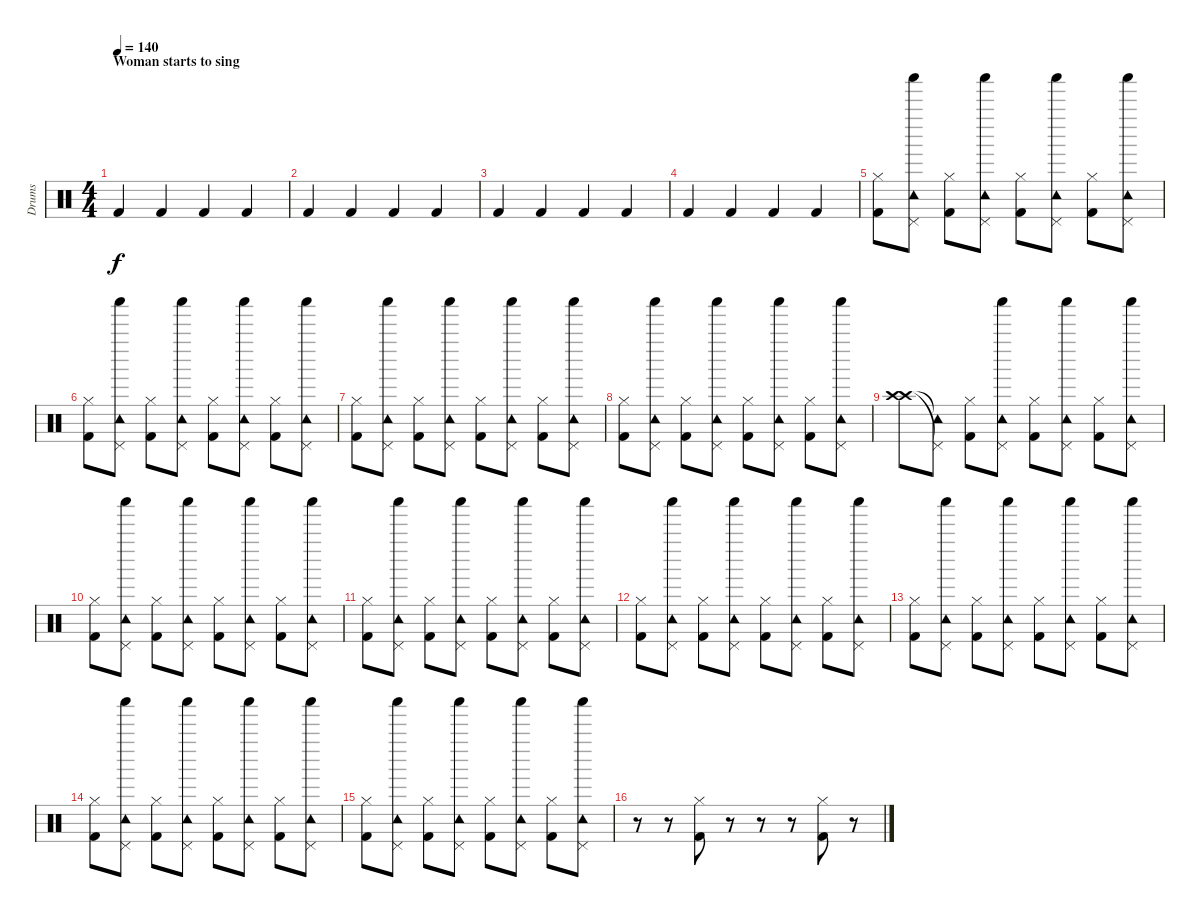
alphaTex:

\track ("Drums" "Drums") {instrument percussion}
\staff {score}
\articulation defaults
\ts (4 4)
\section ("" "Woman starts to sing")
\tempo 140
\clef neutral
\ks c "Kick (hit) 2".4{dy f} "Kick (hit) 2".4 "Kick (hit) 2".4 "Kick (hit) 2".4
|
"Kick (hit) 2".4 "Kick (hit) 2".4 "Kick (hit) 2".4 "Kick (hit) 2".4 |
"Kick (hit) 2".4 "Kick (hit) 2".4 "Kick (hit) 2".4 "Kick (hit) 2".4 |
"Kick (hit) 2".4 "Kick (hit) 2".4 "Kick (hit) 2".4 "Kick (hit) 2".4 |
("Kick (hit) 2" "Hi-Hat (closed)").8 ("Pedal Hi-Hat (hit)" "Tambourine (hit)" "Shaker (hit)").8 ("Kick (hit) 2" "Hi-Hat (closed)").8 ("Pedal Hi-Hat (hit)" "Tambourine (hit)" "Shaker (hit)").8 ("Kick (hit) 2" "Hi-Hat (closed)").8 ("Pedal Hi-Hat (hit)" "Tambourine (hit)" "Shaker (hit)").8 ("Kick (hit) 2" "Hi-Hat (closed)").8 ("Pedal Hi-Hat (hit)" "Tambourine (hit)" "Shaker (hit)").8 |
("Kick (hit) 2" "Hi-Hat (closed)").8 ("Pedal Hi-Hat (hit)" "Tambourine (hit)" "Shaker (hit)").8 ("Kick (hit) 2" "Hi-Hat (closed)").8 ("Pedal Hi-Hat (hit)" "Tambourine (hit)" "Shaker (hit)").8 ("Kick (hit) 2" "Hi-Hat (closed)").8 ("Pedal Hi-Hat (hit)" "Tambourine (hit)" "Shaker (hit)").8 ("Kick (hit) 2" "Hi-Hat (closed)").8 ("Pedal Hi-Hat (hit)" "Tambourine (hit)" "Shaker (hit)").8 |
("Kick (hit) 2" "Hi-Hat (closed)").8 ("Pedal Hi-Hat (hit)" "Tambourine (hit)" "Shaker (hit)").8 ("Kick (hit) 2" "Hi-Hat (closed)").8 ("Pedal Hi-Hat (hit)" "Tambourine (hit)" "Shaker (hit)").8 ("Kick (hit) 2" "Hi-Hat (closed)").8 ("Pedal Hi-Hat (hit)" "Tambourine (hit)" "Shaker (hit)").8 ("Kick (hit) 2" "Hi-Hat (closed)").8 ("Pedal Hi-Hat (hit)" "Tambourine (hit)" "Shaker (hit)").8 |
("Kick (hit) 2" "Hi-Hat (closed)").8 ("Pedal Hi-Hat (hit)" "Tambourine (hit)" "Shaker (hit)").8 ("Kick (hit) 2" "Hi-Hat (closed)").8 ("Pedal Hi-Hat (hit)" "Tambourine (hit)" "Shaker (hit)").8 ("Kick (hit) 2" "Hi-Hat (closed)").8 ("Pedal Hi-Hat (hit)" "Tambourine (hit)" "Shaker (hit)").8 ("Kick (hit) 2" "Hi-Hat (closed)").8 ("Pedal Hi-Hat (hit)" "Tambourine (hit)" "Shaker (hit)").8 |
("Crash high (hit)" "Crash high (hit)").8 ("Pedal Hi-Hat (hit)"{t} "Tambourine (hit)"{t}).8 ("Hi-Hat (closed)" "Kick (hit) 2").8 ("Pedal Hi-Hat (hit)" "Tambourine (hit)" "Shaker (hit)").8 ("Kick (hit) 2" "Hi-Hat (closed)").8 ("Pedal Hi-Hat (hit)" "Tambourine (hit)" "Shaker (hit)").8 ("Kick (hit) 2" "Hi-Hat (closed)").8 ("Pedal Hi-Hat (hit)" "Tambourine (hit)" "Shaker (hit)").8 |
("Kick (hit) 2" "Hi-Hat (closed)").8 ("Pedal Hi-Hat (hit)" "Tambourine (hit)" "Shaker (hit)").8 ("Kick (hit) 2" "Hi-Hat (closed)").8 ("Pedal Hi-Hat (hit)" "Tambourine (hit)" "Shaker (hit)").8 ("Kick (hit) 2" "Hi-Hat (closed)").8 ("Pedal Hi-Hat (hit)" "Tambourine (hit)" "Shaker (hit)").8 ("Kick (hit) 2" "Hi-Hat (closed)").8 ("Pedal Hi-Hat (hit)" "Tambourine (hit)" "Shaker (hit)").8 |
("Kick (hit) 2" "Hi-Hat (closed)").8 ("Pedal Hi-Hat (hit)" "Tambourine (hit)" "Shaker (hit)").8 ("Kick (hit) 2" "Hi-Hat (closed)").8 ("Pedal Hi-Hat (hit)" "Tambourine (hit)" "Shaker (hit)").8 ("Kick (hit) 2" "Hi-Hat (closed)").8 ("Pedal Hi-Hat (hit)" "Tambourine (hit)" "Shaker (hit)").8 ("Kick (hit) 2" "Hi-Hat (closed)").8 ("Pedal Hi-Hat (hit)" "Tambourine (hit)" "Shaker (hit)").8 |
("Kick (hit) 2" "Hi-Hat (closed)").8 ("Pedal Hi-Hat (hit)" "Tambourine (hit)" "Shaker (hit)").8 ("Kick (hit) 2" "Hi-Hat (closed)").8 ("Pedal Hi-Hat (hit)" "Tambourine (hit)" "Shaker (hit)").8 ("Kick (hit) 2" "Hi-Hat (closed)").8 ("Pedal Hi-Hat (hit)" "Tambourine (hit)" "Shaker (hit)").8 ("Kick (hit) 2" "Hi-Hat (closed)").8 ("Pedal Hi-Hat (hit)" "Tambourine (hit)" "Shaker (hit)").8 |
("Kick (hit) 2" "Hi-Hat (closed)").8 ("Pedal Hi-Hat (hit)" "Tambourine (hit)" "Shaker (hit)").8 ("Kick (hit) 2" "Hi-Hat (closed)").8 ("Pedal Hi-Hat (hit)" "Tambourine (hit)" "Shaker (hit)").8 ("Kick (hit) 2" "Hi-Hat (closed)").8 ("Pedal Hi-Hat (hit)" "Tambourine (hit)" "Shaker (hit)").8 ("Kick (hit) 2" "Hi-Hat (closed)").8 ("Pedal Hi-Hat (hit)" "Tambourine (hit)" "Shaker (hit)").8 |
("Kick (hit) 2" "Hi-Hat (closed)").8 ("Pedal Hi-Hat (hit)" "Tambourine (hit)" "Shaker (hit)").8 ("Kick (hit) 2" "Hi-Hat (closed)").8 ("Pedal Hi-Hat (hit)" "Tambourine (hit)" "Shaker (hit)").8 ("Kick (hit) 2" "Hi-Hat (closed)").8 ("Pedal Hi-Hat (hit)" "Tambourine (hit)" "Shaker (hit)").8 ("Kick (hit) 2" "Hi-Hat (closed)").8 ("Pedal Hi-Hat (hit)" "Tambourine (hit)" "Shaker (hit)").8 |
("Kick (hit) 2" "Hi-Hat (closed)").8 ("Pedal Hi-Hat (hit)" "Tambourine (hit)" "Shaker (hit)").8 ("Kick (hit) 2" "Hi-Hat (closed)").8 ("Pedal Hi-Hat (hit)" "Tambourine (hit)" "Shaker (hit)").8 ("Kick (hit) 2" "Hi-Hat (closed)").8 ("Pedal Hi-Hat (hit)" "Tambourine (hit)" "Shaker (hit)").8 ("Kick (hit) 2" "Hi-Hat (closed)").8 ("Pedal Hi-Hat (hit)" "Tambourine (hit)" "Shaker (hit)").8 |
r.8 r.8 ("Kick (hit) 2" "Hi-Hat (closed)").8 r.8 r.8 r.8 ("Kick (hit) 2" "Hi-Hat (closed)").8 r.8
